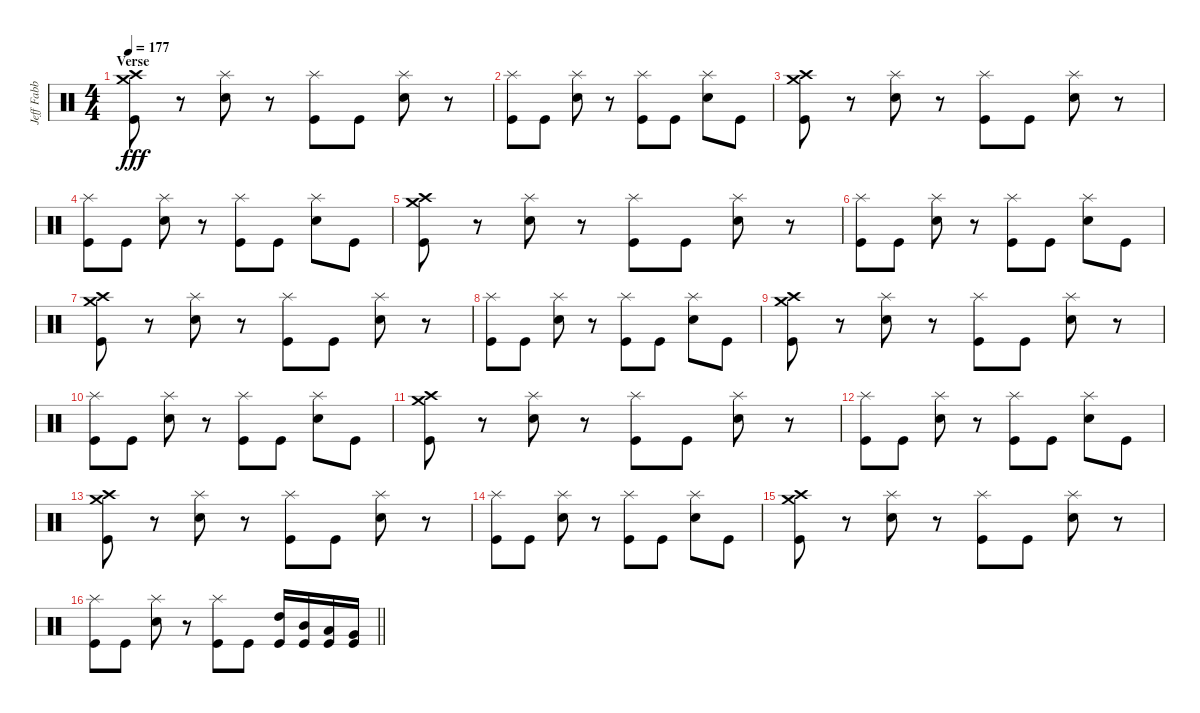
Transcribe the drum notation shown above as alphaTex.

\track ("Jeff Fabb (Drums)" "Jeff Fabb ") {instrument percussion}
\staff {score}
\articulation defaults
\ts (4 4)
\section ("" "Verse")
\tempo 177
\clef neutral
\ks c
("Crash high (hit)" "Crash medium (hit)" "Kick (hit)").8{dy fff} r.8 ("Splash (hit)" "Electric Snare (hit)").8 r.8 ("Splash (hit)" "Kick (hit)").8 "Kick (hit)".8 ("Splash (hit)" "Electric Snare (hit)").8 r.8 |
("Splash (hit)" "Kick (hit)").8 "Kick (hit)".8 ("Splash (hit)" "Electric Snare (hit)").8 r.8 ("Splash (hit)" "Kick (hit)").8 "Kick (hit)".8 ("Splash (hit)" "Electric Snare (hit)").8 "Kick (hit)".8 |
("Crash high (hit)" "Crash medium (hit)" "Kick (hit)").8 r.8 ("Splash (hit)" "Electric Snare (hit)").8 r.8 ("Splash (hit)" "Kick (hit)").8 "Kick (hit)".8 ("Splash (hit)" "Electric Snare (hit)").8 r.8 |
("Splash (hit)" "Kick (hit)").8 "Kick (hit)".8 ("Splash (hit)" "Electric Snare (hit)").8 r.8 ("Splash (hit)" "Kick (hit)").8 "Kick (hit)".8 ("Splash (hit)" "Electric Snare (hit)").8 "Kick (hit)".8 |
("Crash high (hit)" "Crash medium (hit)" "Kick (hit)").8 r.8 ("Splash (hit)" "Electric Snare (hit)").8 r.8 ("Splash (hit)" "Kick (hit)").8 "Kick (hit)".8 ("Splash (hit)" "Electric Snare (hit)").8 r.8 |
("Splash (hit)" "Kick (hit)").8 "Kick (hit)".8 ("Splash (hit)" "Electric Snare (hit)").8 r.8 ("Splash (hit)" "Kick (hit)").8 "Kick (hit)".8 ("Splash (hit)" "Electric Snare (hit)").8 "Kick (hit)".8 |
("Crash high (hit)" "Crash medium (hit)" "Kick (hit)").8 r.8 ("Splash (hit)" "Electric Snare (hit)").8 r.8 ("Splash (hit)" "Kick (hit)").8 "Kick (hit)".8 ("Splash (hit)" "Electric Snare (hit)").8 r.8 |
("Splash (hit)" "Kick (hit)").8 "Kick (hit)".8 ("Splash (hit)" "Electric Snare (hit)").8 r.8 ("Splash (hit)" "Kick (hit)").8 "Kick (hit)".8 ("Splash (hit)" "Electric Snare (hit)").8 "Kick (hit)".8 |
("Crash high (hit)" "Crash medium (hit)" "Kick (hit)").8 r.8 ("Splash (hit)" "Electric Snare (hit)").8 r.8 ("Splash (hit)" "Kick (hit)").8 "Kick (hit)".8 ("Splash (hit)" "Electric Snare (hit)").8 r.8 |
("Splash (hit)" "Kick (hit)").8 "Kick (hit)".8 ("Splash (hit)" "Electric Snare (hit)").8 r.8 ("Splash (hit)" "Kick (hit)").8 "Kick (hit)".8 ("Splash (hit)" "Electric Snare (hit)").8 "Kick (hit)".8 |
("Crash high (hit)" "Crash medium (hit)" "Kick (hit)").8 r.8 ("Splash (hit)" "Electric Snare (hit)").8 r.8 ("Splash (hit)" "Kick (hit)").8 "Kick (hit)".8 ("Splash (hit)" "Electric Snare (hit)").8 r.8 |
("Splash (hit)" "Kick (hit)").8 "Kick (hit)".8 ("Splash (hit)" "Electric Snare (hit)").8 r.8 ("Splash (hit)" "Kick (hit)").8 "Kick (hit)".8 ("Splash (hit)" "Electric Snare (hit)").8 "Kick (hit)".8 |
("Crash high (hit)" "Crash medium (hit)" "Kick (hit)").8 r.8 ("Splash (hit)" "Electric Snare (hit)").8 r.8 ("Splash (hit)" "Kick (hit)").8 "Kick (hit)".8 ("Splash (hit)" "Electric Snare (hit)").8 r.8 |
("Splash (hit)" "Kick (hit)").8 "Kick (hit)".8 ("Splash (hit)" "Electric Snare (hit)").8 r.8 ("Splash (hit)" "Kick (hit)").8 "Kick (hit)".8 ("Splash (hit)" "Electric Snare (hit)").8 "Kick (hit)".8 |
("Crash high (hit)" "Crash medium (hit)" "Kick (hit)").8 r.8 ("Splash (hit)" "Electric Snare (hit)").8 r.8 ("Splash (hit)" "Kick (hit)").8 "Kick (hit)".8 ("Splash (hit)" "Electric Snare (hit)").8 r.8 |
\barLineRight lightlight
("Splash (hit)" "Kick (hit)").8 "Kick (hit)".8 ("Splash (hit)" "Electric Snare (hit)").8 r.8 ("Splash (hit)" "Kick (hit)").8 "Kick (hit)".8 ("High Tom (hit)" "Kick (hit)").16 ("Mid Tom (hit)" "Kick (hit)").16 ("Low Tom (hit)" "Kick (hit)").16 ("Very Low Tom (hit)" "Kick (hit)").16
